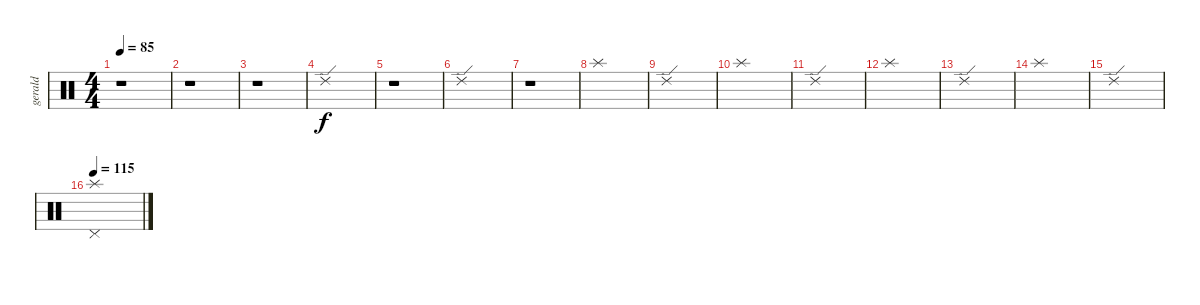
\track ("gerald" "gerald") {instrument percussion}
\staff {score}
\articulation defaults
\ts (4 4)
\tempo 85
\clef neutral
\ks c
r.1{dy f} |
r.1 |
r.1 |
"Ride (edge) 2".1 |
r.1 |
"Ride (edge) 2".1 |
r.1 |
"Splash (hit)".1 |
"Ride (edge) 2".1 |
"Splash (hit)".1 |
"Ride (edge) 2".1 |
"Splash (hit)".1 |
"Ride (edge) 2".1 |
"Splash (hit)".1 |
"Ride (edge) 2".1 |
\tempo 115
("Pedal Hi-Hat (hit)" "Splash (hit)").1
